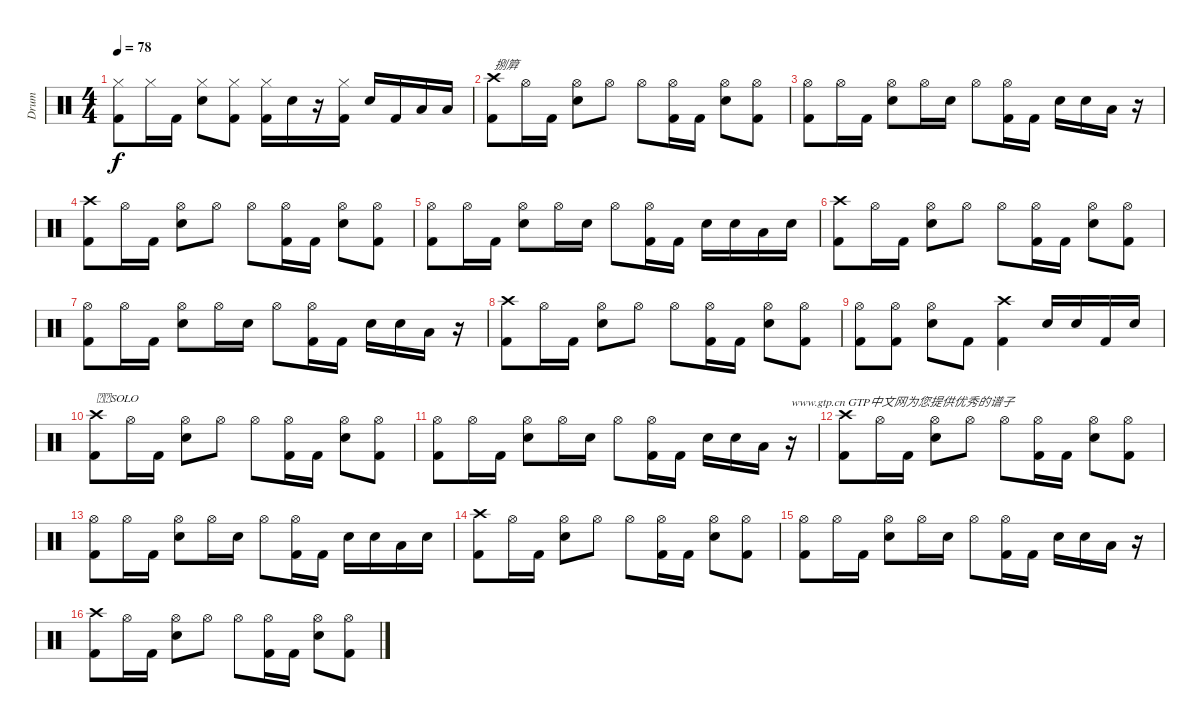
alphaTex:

\track ("Drum" "Drum") {instrument percussion}
\staff {score}
\articulation defaults
\ts (4 4)
\tempo 78
\clef neutral
\ks c
("Hi-Hat (closed)" "Kick (hit) 2").8{dy f} "Hi-Hat (closed)".16 "Kick (hit) 2".16 ("Hi-Hat (closed)" "Snare (hit) 2").8 ("Hi-Hat (closed)" "Kick (hit) 2").8 ("Hi-Hat (closed)" "Kick (hit) 2").16 "Snare (hit) 2".16 r.16 ("Hi-Hat (closed)" "Kick (hit) 2").16 "Snare (hit) 2".16 "Kick (hit) 2".16 "Low Tom (hit)".16 "Low Tom (hit)".16 |
("Crash high (hit)" "Kick (hit) 2").8{txt "捌簈"} "Hi-Hat (open)".16 "Kick (hit) 2".16 ("Hi-Hat (open)" "Snare (hit) 2").8 "Hi-Hat (open)".8 "Hi-Hat (open)".8 ("Hi-Hat (open)" "Kick (hit) 2").16 "Kick (hit) 2".16 ("Hi-Hat (open)" "Snare (hit) 2").8 ("Hi-Hat (open)" "Kick (hit) 2").8 |
("Hi-Hat (open)" "Kick (hit) 2").8 "Hi-Hat (open)".16 "Kick (hit) 2".16 ("Hi-Hat (open)" "Snare (hit) 2").8 "Hi-Hat (open)".16 "Snare (hit) 2".16 "Hi-Hat (open)".8 ("Hi-Hat (open)" "Kick (hit) 2").16 "Kick (hit) 2".16 "Snare (hit) 2".16 "Snare (hit) 2".16 "Low Tom (hit)".16 r.16 |
("Crash high (hit)" "Kick (hit) 2").8 "Hi-Hat (open)".16 "Kick (hit) 2".16 ("Hi-Hat (open)" "Snare (hit) 2").8 "Hi-Hat (open)".8 "Hi-Hat (open)".8 ("Hi-Hat (open)" "Kick (hit) 2").16 "Kick (hit) 2".16 ("Hi-Hat (open)" "Snare (hit) 2").8 ("Hi-Hat (open)" "Kick (hit) 2").8 |
("Hi-Hat (open)" "Kick (hit) 2").8 "Hi-Hat (open)".16 "Kick (hit) 2".16 ("Hi-Hat (open)" "Snare (hit) 2").8 "Hi-Hat (open)".16 "Snare (hit) 2".16 "Hi-Hat (open)".8 ("Hi-Hat (open)" "Kick (hit) 2").16 "Kick (hit) 2".16 "Snare (hit) 2".16 "Snare (hit) 2".16 "Low Tom (hit)".16 "Snare (hit) 2".16 |
("Crash high (hit)" "Kick (hit) 2").8 "Hi-Hat (open)".16 "Kick (hit) 2".16 ("Hi-Hat (open)" "Snare (hit) 2").8 "Hi-Hat (open)".8 "Hi-Hat (open)".8 ("Hi-Hat (open)" "Kick (hit) 2").16 "Kick (hit) 2".16 ("Hi-Hat (open)" "Snare (hit) 2").8 ("Hi-Hat (open)" "Kick (hit) 2").8 |
("Hi-Hat (open)" "Kick (hit) 2").8 "Hi-Hat (open)".16 "Kick (hit) 2".16 ("Hi-Hat (open)" "Snare (hit) 2").8 "Hi-Hat (open)".16 "Snare (hit) 2".16 "Hi-Hat (open)".8 ("Hi-Hat (open)" "Kick (hit) 2").16 "Kick (hit) 2".16 "Snare (hit) 2".16 "Snare (hit) 2".16 "Low Tom (hit)".16 r.16 |
("Crash high (hit)" "Kick (hit) 2").8 "Hi-Hat (open)".16 "Kick (hit) 2".16 ("Hi-Hat (open)" "Snare (hit) 2").8 "Hi-Hat (open)".8 "Hi-Hat (open)".8 ("Hi-Hat (open)" "Kick (hit) 2").16 "Kick (hit) 2".16 ("Hi-Hat (open)" "Snare (hit) 2").8 ("Hi-Hat (open)" "Kick (hit) 2").8 |
("Hi-Hat (open)" "Kick (hit) 2").8 ("Hi-Hat (open)" "Kick (hit) 2").8 ("Hi-Hat (open)" "Snare (hit) 2").8 "Kick (hit) 2".8 ("Crash high (hit)" "Kick (hit) 2").4 "Snare (hit) 2".16 "Snare (hit) 2".16 "Kick (hit) 2".16 "Snare (hit) 2".16 |
("Crash high (hit)" "Kick (hit) 2").8{txt "SOLO"} "Hi-Hat (open)".16 "Kick (hit) 2".16 ("Hi-Hat (open)" "Snare (hit) 2").8 "Hi-Hat (open)".8 "Hi-Hat (open)".8 ("Hi-Hat (open)" "Kick (hit) 2").16 "Kick (hit) 2".16 ("Hi-Hat (open)" "Snare (hit) 2").8 ("Hi-Hat (open)" "Kick (hit) 2").8 |
("Hi-Hat (open)" "Kick (hit) 2").8 "Hi-Hat (open)".16 "Kick (hit) 2".16 ("Hi-Hat (open)" "Snare (hit) 2").8 "Hi-Hat (open)".16 "Snare (hit) 2".16 "Hi-Hat (open)".8 ("Hi-Hat (open)" "Kick (hit) 2").16 "Kick (hit) 2".16 "Snare (hit) 2".16 "Snare (hit) 2".16 "Low Tom (hit)".16 r.16{txt "www.gtp.cn GTP中文网为您提供优秀的谱子"} |
("Crash high (hit)" "Kick (hit) 2").8 "Hi-Hat (open)".16 "Kick (hit) 2".16 ("Hi-Hat (open)" "Snare (hit) 2").8 "Hi-Hat (open)".8 "Hi-Hat (open)".8 ("Hi-Hat (open)" "Kick (hit) 2").16 "Kick (hit) 2".16 ("Hi-Hat (open)" "Snare (hit) 2").8 ("Hi-Hat (open)" "Kick (hit) 2").8 |
("Hi-Hat (open)" "Kick (hit) 2").8 "Hi-Hat (open)".16 "Kick (hit) 2".16 ("Hi-Hat (open)" "Snare (hit) 2").8 "Hi-Hat (open)".16 "Snare (hit) 2".16 "Hi-Hat (open)".8 ("Hi-Hat (open)" "Kick (hit) 2").16 "Kick (hit) 2".16 "Snare (hit) 2".16 "Snare (hit) 2".16 "Low Tom (hit)".16 "Snare (hit) 2".16 |
("Crash high (hit)" "Kick (hit) 2").8 "Hi-Hat (open)".16 "Kick (hit) 2".16 ("Hi-Hat (open)" "Snare (hit) 2").8 "Hi-Hat (open)".8 "Hi-Hat (open)".8 ("Hi-Hat (open)" "Kick (hit) 2").16 "Kick (hit) 2".16 ("Hi-Hat (open)" "Snare (hit) 2").8 ("Hi-Hat (open)" "Kick (hit) 2").8 |
("Hi-Hat (open)" "Kick (hit) 2").8 "Hi-Hat (open)".16 "Kick (hit) 2".16 ("Hi-Hat (open)" "Snare (hit) 2").8 "Hi-Hat (open)".16 "Snare (hit) 2".16 "Hi-Hat (open)".8 ("Hi-Hat (open)" "Kick (hit) 2").16 "Kick (hit) 2".16 "Snare (hit) 2".16 "Snare (hit) 2".16 "Low Tom (hit)".16 r.16 |
("Crash high (hit)" "Kick (hit) 2").8 "Hi-Hat (open)".16 "Kick (hit) 2".16 ("Hi-Hat (open)" "Snare (hit) 2").8 "Hi-Hat (open)".8 "Hi-Hat (open)".8 ("Hi-Hat (open)" "Kick (hit) 2").16 "Kick (hit) 2".16 ("Hi-Hat (open)" "Snare (hit) 2").8 ("Hi-Hat (open)" "Kick (hit) 2").8
